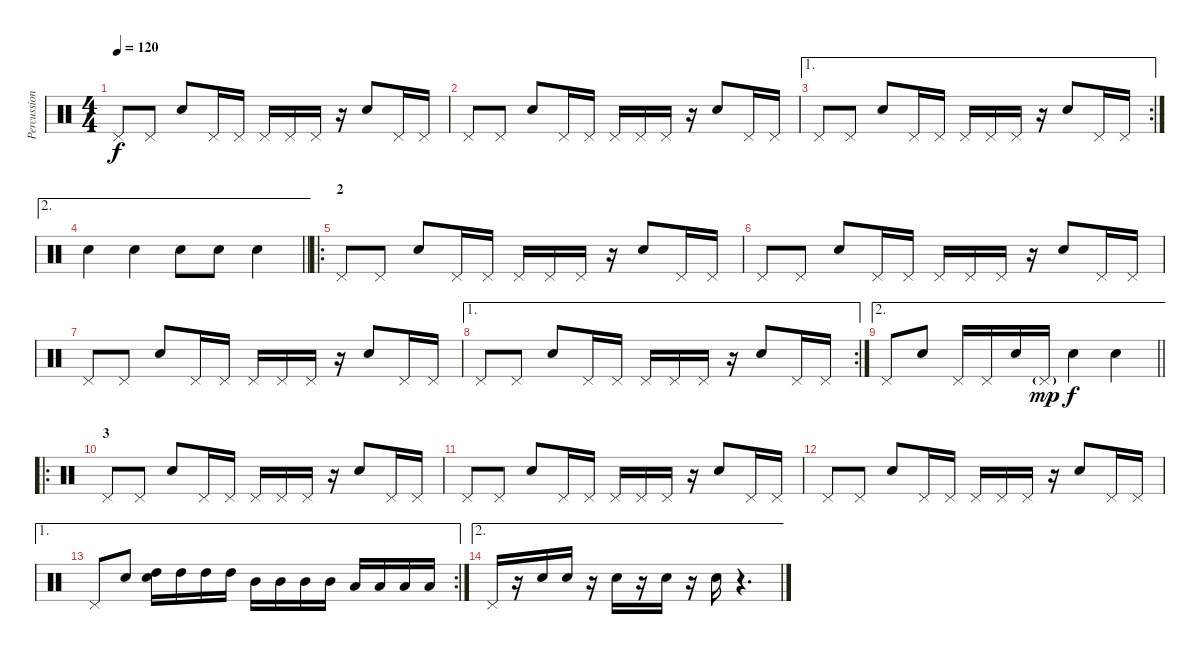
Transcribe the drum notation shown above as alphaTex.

\track ("Percussion" "Percussion") {instrument percussion}
\staff {score}
\articulation defaults
\ts (4 4)
\tempo 120
\clef neutral
\ks c "Pedal Hi-Hat (hit)".8{dy f} "Pedal Hi-Hat (hit)".8 "Hand Clap (hit)".8 "Pedal Hi-Hat (hit)".16 "Pedal Hi-Hat (hit)".16 "Pedal Hi-Hat (hit)".16 "Pedal Hi-Hat (hit)".16 "Pedal Hi-Hat (hit)".16
r.16 "Hand Clap (hit)".8 "Pedal Hi-Hat (hit)".16 "Pedal Hi-Hat (hit)".16 |
"Pedal Hi-Hat (hit)".8 "Pedal Hi-Hat (hit)".8 "Hand Clap (hit)".8 "Pedal Hi-Hat (hit)".16 "Pedal Hi-Hat (hit)".16 "Pedal Hi-Hat (hit)".16 "Pedal Hi-Hat (hit)".16 "Pedal Hi-Hat (hit)".16 r.16 "Hand Clap (hit)".8 "Pedal Hi-Hat (hit)".16 "Pedal Hi-Hat (hit)".16 |
\ae 1
\rc 2 "Pedal Hi-Hat (hit)".8 "Pedal Hi-Hat (hit)".8 "Hand Clap (hit)".8 "Pedal Hi-Hat (hit)".16 "Pedal Hi-Hat (hit)".16 "Pedal Hi-Hat (hit)".16 "Pedal Hi-Hat (hit)".16 "Pedal Hi-Hat (hit)".16
r.16 "Hand Clap (hit)".8 "Pedal Hi-Hat (hit)".16 "Pedal Hi-Hat (hit)".16 |
\ae 2
\barLineRight lightlight "Hand Clap (hit)".4 "Hand Clap (hit)".4 "Hand Clap (hit)".8 "Hand Clap (hit)".8 "Hand Clap (hit)".4
|
\ro
\section ("" "2")
"Pedal Hi-Hat (hit)".8 "Pedal Hi-Hat (hit)".8 "Hand Clap (hit)".8 "Pedal Hi-Hat (hit)".16 "Pedal Hi-Hat (hit)".16 "Pedal Hi-Hat (hit)".16 "Pedal Hi-Hat (hit)".16 "Pedal Hi-Hat (hit)".16 r.16 "Hand Clap (hit)".8 "Pedal Hi-Hat (hit)".16 "Pedal Hi-Hat (hit)".16 |
"Pedal Hi-Hat (hit)".8 "Pedal Hi-Hat (hit)".8 "Hand Clap (hit)".8 "Pedal Hi-Hat (hit)".16 "Pedal Hi-Hat (hit)".16 "Pedal Hi-Hat (hit)".16 "Pedal Hi-Hat (hit)".16 "Pedal Hi-Hat (hit)".16 r.16 "Hand Clap (hit)".8 "Pedal Hi-Hat (hit)".16 "Pedal Hi-Hat (hit)".16 |
"Pedal Hi-Hat (hit)".8 "Pedal Hi-Hat (hit)".8 "Hand Clap (hit)".8 "Pedal Hi-Hat (hit)".16 "Pedal Hi-Hat (hit)".16 "Pedal Hi-Hat (hit)".16 "Pedal Hi-Hat (hit)".16 "Pedal Hi-Hat (hit)".16 r.16 "Hand Clap (hit)".8 "Pedal Hi-Hat (hit)".16 "Pedal Hi-Hat (hit)".16 |
\ae 1
\rc 2 "Pedal Hi-Hat (hit)".8 "Pedal Hi-Hat (hit)".8 "Hand Clap (hit)".8 "Pedal Hi-Hat (hit)".16 "Pedal Hi-Hat (hit)".16 "Pedal Hi-Hat (hit)".16 "Pedal Hi-Hat (hit)".16 "Pedal Hi-Hat (hit)".16
r.16 "Hand Clap (hit)".8 "Pedal Hi-Hat (hit)".16 "Pedal Hi-Hat (hit)".16 |
\ae 2
\barLineRight lightlight "Pedal Hi-Hat (hit)".8 "Hand Clap (hit)".8 "Pedal Hi-Hat (hit)".16 "Pedal Hi-Hat (hit)".16 "Hand Clap (hit)".16 "Pedal Hi-Hat (hit)"{g}.16{dy mp} "Hand Clap (hit)".4{dy f} "Metronome (bell)".4
|
\ro
\section ("" "3")
"Pedal Hi-Hat (hit)".8 "Pedal Hi-Hat (hit)".8 "Hand Clap (hit)".8 "Pedal Hi-Hat (hit)".16 "Pedal Hi-Hat (hit)".16 "Pedal Hi-Hat (hit)".16 "Pedal Hi-Hat (hit)".16 "Pedal Hi-Hat (hit)".16 r.16 "Hand Clap (hit)".8 "Pedal Hi-Hat (hit)".16 "Pedal Hi-Hat (hit)".16 |
"Pedal Hi-Hat (hit)".8 "Pedal Hi-Hat (hit)".8 "Hand Clap (hit)".8 "Pedal Hi-Hat (hit)".16 "Pedal Hi-Hat (hit)".16 "Pedal Hi-Hat (hit)".16 "Pedal Hi-Hat (hit)".16 "Pedal Hi-Hat (hit)".16 r.16 "Hand Clap (hit)".8 "Pedal Hi-Hat (hit)".16 "Pedal Hi-Hat (hit)".16 |
"Pedal Hi-Hat (hit)".8 "Pedal Hi-Hat (hit)".8 "Hand Clap (hit)".8 "Pedal Hi-Hat (hit)".16 "Pedal Hi-Hat (hit)".16 "Pedal Hi-Hat (hit)".16 "Pedal Hi-Hat (hit)".16 "Pedal Hi-Hat (hit)".16 r.16 "Hand Clap (hit)".8 "Pedal Hi-Hat (hit)".16 "Pedal Hi-Hat (hit)".16 |
\ae 1
\rc 2 "Pedal Hi-Hat (hit)".8 "Hand Clap (hit)".8
("High Tom (hit)" "Hand Clap (hit)").16 "High Tom (hit)".16 "High Tom (hit)".16 "High Tom (hit)".16 "Mid Tom (hit)".16 "Mid Tom (hit)".16 "Mid Tom (hit)".16 "Mid Tom (hit)".16 "Low Tom (hit)".16 "Low Tom (hit)".16 "Low Tom (hit)".16 "Low Tom (hit)".16 |
\ae 2 "Pedal Hi-Hat (hit)".16
r.16 "Hand Clap (hit)".16 "Hand Clap (hit)".16 r.16 "Hand Clap (hit)".16 r.16 "Hand Clap (hit)".16 r.16 "Hand Clap (hit)".16 r.4{d}
